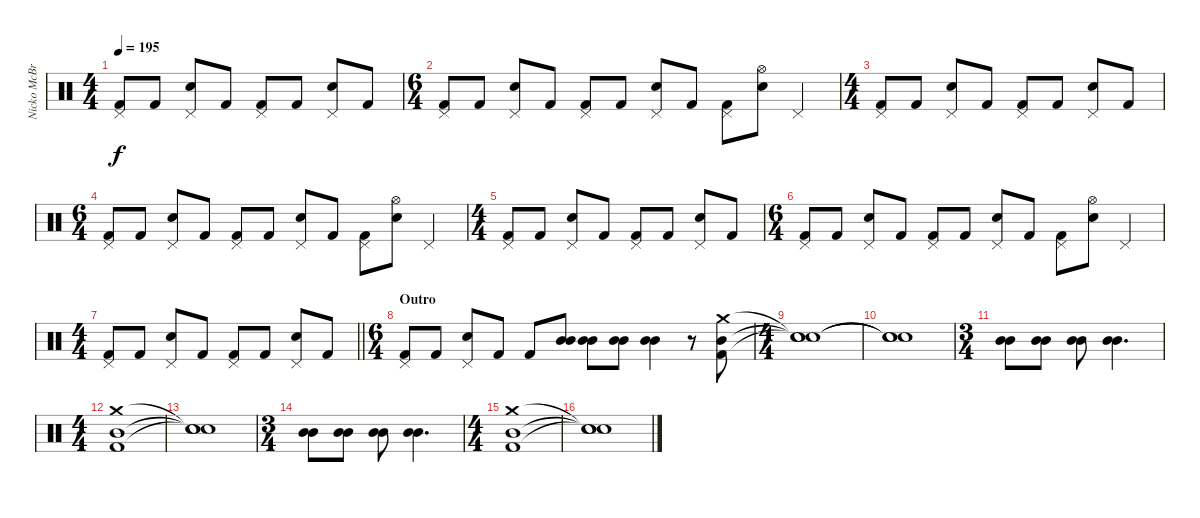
\track ("Nicko McBrain" "Nicko McBr") {instrument percussion}
\staff {score}
\articulation defaults
\ts (4 4)
\tempo 195
\clef neutral
\ks c
("Pedal Hi-Hat (hit)" "Kick (hit) 2").8{dy f} "Kick (hit) 2".8 ("Pedal Hi-Hat (hit)" "Snare (hit) 2").8 "Kick (hit) 2".8 ("Pedal Hi-Hat (hit)" "Kick (hit) 2").8 "Kick (hit) 2".8 ("Pedal Hi-Hat (hit)" "Snare (hit) 2").8 "Kick (hit) 2".8 |
\ts (6 4)
("Pedal Hi-Hat (hit)" "Kick (hit) 2").8 "Kick (hit) 2".8 ("Pedal Hi-Hat (hit)" "Snare (hit) 2").8 "Kick (hit) 2".8 ("Pedal Hi-Hat (hit)" "Kick (hit) 2").8 "Kick (hit) 2".8 ("Pedal Hi-Hat (hit)" "Snare (hit) 2").8 "Kick (hit) 2".8 ("Pedal Hi-Hat (hit)" "Kick (hit) 2").8 ("Hi-Hat (open)" "Snare (hit) 2").8 "Pedal Hi-Hat (hit)".4 |
\ts (4 4)
("Pedal Hi-Hat (hit)" "Kick (hit) 2").8 "Kick (hit) 2".8 ("Pedal Hi-Hat (hit)" "Snare (hit) 2").8 "Kick (hit) 2".8 ("Pedal Hi-Hat (hit)" "Kick (hit) 2").8 "Kick (hit) 2".8 ("Pedal Hi-Hat (hit)" "Snare (hit) 2").8 "Kick (hit) 2".8 |
\ts (6 4)
("Pedal Hi-Hat (hit)" "Kick (hit) 2").8 "Kick (hit) 2".8 ("Pedal Hi-Hat (hit)" "Snare (hit) 2").8 "Kick (hit) 2".8 ("Pedal Hi-Hat (hit)" "Kick (hit) 2").8 "Kick (hit) 2".8 ("Pedal Hi-Hat (hit)" "Snare (hit) 2").8 "Kick (hit) 2".8 ("Pedal Hi-Hat (hit)" "Kick (hit) 2").8 ("Hi-Hat (open)" "Snare (hit) 2").8 "Pedal Hi-Hat (hit)".4 |
\ts (4 4)
("Pedal Hi-Hat (hit)" "Kick (hit) 2").8 "Kick (hit) 2".8 ("Pedal Hi-Hat (hit)" "Snare (hit) 2").8 "Kick (hit) 2".8 ("Pedal Hi-Hat (hit)" "Kick (hit) 2").8 "Kick (hit) 2".8 ("Pedal Hi-Hat (hit)" "Snare (hit) 2").8 "Kick (hit) 2".8 |
\ts (6 4)
("Pedal Hi-Hat (hit)" "Kick (hit) 2").8 "Kick (hit) 2".8 ("Pedal Hi-Hat (hit)" "Snare (hit) 2").8 "Kick (hit) 2".8 ("Pedal Hi-Hat (hit)" "Kick (hit) 2").8 "Kick (hit) 2".8 ("Pedal Hi-Hat (hit)" "Snare (hit) 2").8 "Kick (hit) 2".8 ("Pedal Hi-Hat (hit)" "Kick (hit) 2").8 ("Hi-Hat (open)" "Snare (hit) 2").8 "Pedal Hi-Hat (hit)".4 |
\ts (4 4)
\barLineRight lightlight
("Pedal Hi-Hat (hit)" "Kick (hit) 2").8 "Kick (hit) 2".8 ("Pedal Hi-Hat (hit)" "Snare (hit) 2").8 "Kick (hit) 2".8 ("Pedal Hi-Hat (hit)" "Kick (hit) 2").8 "Kick (hit) 2".8 ("Pedal Hi-Hat (hit)" "Snare (hit) 2").8 "Kick (hit) 2".8 |
\ts (6 4)
\section ("" "Outro")
("Pedal Hi-Hat (hit)" "Kick (hit) 2").8 "Kick (hit) 2".8 ("Pedal Hi-Hat (hit)" "Snare (hit) 2").8 "Kick (hit) 2".8 "Kick (hit) 2".8 ("Mid Tom (hit)" "Mid Tom (hit)").8 ("Mid Tom (hit)" "Mid Tom (hit)").8 ("Mid Tom (hit)" "Mid Tom (hit)").8 ("Mid Tom (hit)" "Mid Tom (hit)").4 r.8 ("Crash medium (hit)" "Mid Tom (hit)" "Kick (hit) 2").8 |
\ts (4 4)
("Snare (hit)"{t} "Snare (hit)"{t} "Snare (hit)"{t}).1 |
("Snare (hit)"{t} "Snare (hit)"{t} "Snare (hit)"{t}).1 |
\ts (3 4)
("Mid Tom (hit)" "Mid Tom (hit)").8 ("Mid Tom (hit)" "Mid Tom (hit)").8 ("Mid Tom (hit)" "Mid Tom (hit)").8 ("Mid Tom (hit)" "Mid Tom (hit)").4{d} |
\ts (4 4)
("Crash medium (hit)" "Mid Tom (hit)" "Kick (hit) 2").1 |
("Snare (hit)"{t} "Snare (hit)"{t} "Snare (hit)"{t}).1 |
\ts (3 4)
("Mid Tom (hit)" "Mid Tom (hit)").8 ("Mid Tom (hit)" "Mid Tom (hit)").8 ("Mid Tom (hit)" "Mid Tom (hit)").8 ("Mid Tom (hit)" "Mid Tom (hit)").4{d} |
\ts (4 4)
("Crash medium (hit)" "Mid Tom (hit)" "Kick (hit) 2").1 |
("Snare (hit)"{t} "Snare (hit)"{t} "Snare (hit)"{t}).1
